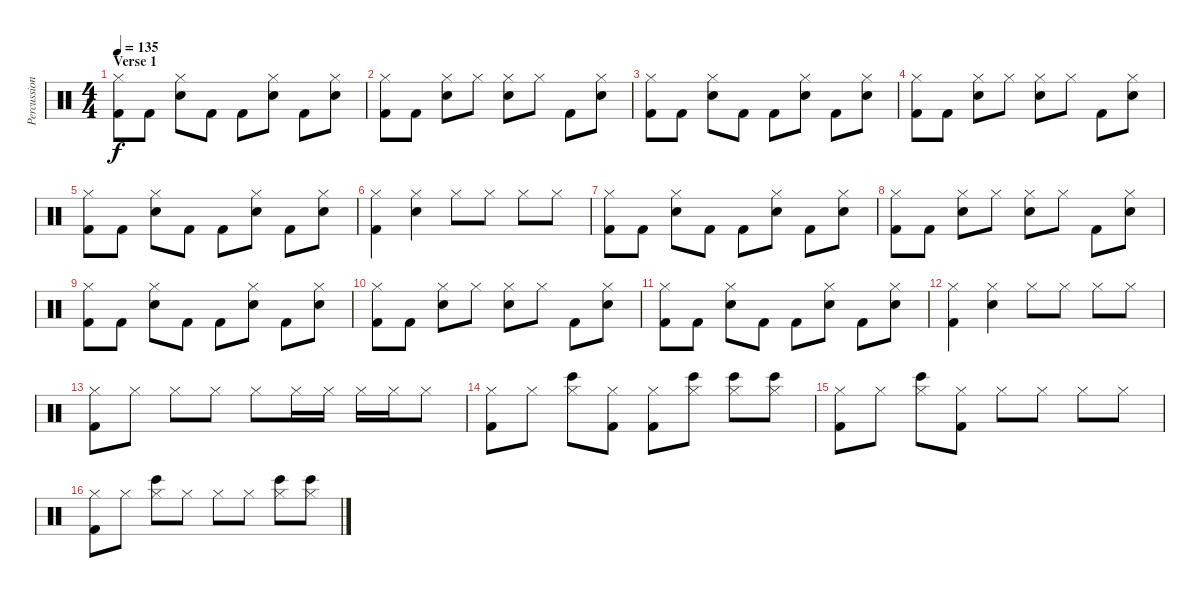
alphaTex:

\track ("Percussion" "Percussion") {instrument percussion}
\staff {score}
\articulation defaults
\ts (4 4)
\section ("" "Verse 1")
\tempo 135
\clef neutral
\ks c
("Hi-Hat (closed)" "Kick (hit) 2").8{dy f} "Kick (hit) 2".8 ("Hi-Hat (closed)" "Snare (hit) 2").8 "Kick (hit) 2".8 "Kick (hit) 2".8 ("Hi-Hat (closed)" "Snare (hit) 2").8 "Kick (hit) 2".8 ("Hi-Hat (closed)" "Snare (hit) 2").8 |
("Hi-Hat (closed)" "Kick (hit) 2").8 "Kick (hit) 2".8 ("Hi-Hat (closed)" "Snare (hit) 2").8 "Hi-Hat (closed)".8 ("Hi-Hat (closed)" "Snare (hit) 2").8 "Hi-Hat (closed)".8 "Kick (hit) 2".8 ("Hi-Hat (closed)" "Snare (hit) 2").8 |
("Hi-Hat (closed)" "Kick (hit) 2").8 "Kick (hit) 2".8 ("Hi-Hat (closed)" "Snare (hit) 2").8 "Kick (hit) 2".8 "Kick (hit) 2".8 ("Hi-Hat (closed)" "Snare (hit) 2").8 "Kick (hit) 2".8 ("Hi-Hat (closed)" "Snare (hit) 2").8 |
("Hi-Hat (closed)" "Kick (hit) 2").8 "Kick (hit) 2".8 ("Hi-Hat (closed)" "Snare (hit) 2").8 "Hi-Hat (closed)".8 ("Hi-Hat (closed)" "Snare (hit) 2").8 "Hi-Hat (closed)".8 "Kick (hit) 2".8 ("Hi-Hat (closed)" "Snare (hit) 2").8 |
("Hi-Hat (closed)" "Kick (hit) 2").8 "Kick (hit) 2".8 ("Hi-Hat (closed)" "Snare (hit) 2").8 "Kick (hit) 2".8 "Kick (hit) 2".8 ("Hi-Hat (closed)" "Snare (hit) 2").8 "Kick (hit) 2".8 ("Hi-Hat (closed)" "Snare (hit) 2").8 |
("Hi-Hat (closed)" "Kick (hit) 2").4 ("Hi-Hat (closed)" "Snare (hit) 2").4 "Hi-Hat (closed)".8 "Hi-Hat (closed)".8 "Hi-Hat (closed)".8 "Hi-Hat (closed)".8 |
("Hi-Hat (closed)" "Kick (hit) 2").8 "Kick (hit) 2".8 ("Hi-Hat (closed)" "Snare (hit) 2").8 "Kick (hit) 2".8 "Kick (hit) 2".8 ("Hi-Hat (closed)" "Snare (hit) 2").8 "Kick (hit) 2".8 ("Hi-Hat (closed)" "Snare (hit) 2").8 |
("Hi-Hat (closed)" "Kick (hit) 2").8 "Kick (hit) 2".8 ("Hi-Hat (closed)" "Snare (hit) 2").8 "Hi-Hat (closed)".8 ("Hi-Hat (closed)" "Snare (hit) 2").8 "Hi-Hat (closed)".8 "Kick (hit) 2".8 ("Hi-Hat (closed)" "Snare (hit) 2").8 |
("Hi-Hat (closed)" "Kick (hit) 2").8 "Kick (hit) 2".8 ("Hi-Hat (closed)" "Snare (hit) 2").8 "Kick (hit) 2".8 "Kick (hit) 2".8 ("Hi-Hat (closed)" "Snare (hit) 2").8 "Kick (hit) 2".8 ("Hi-Hat (closed)" "Snare (hit) 2").8 |
("Hi-Hat (closed)" "Kick (hit) 2").8 "Kick (hit) 2".8 ("Hi-Hat (closed)" "Snare (hit) 2").8 "Hi-Hat (closed)".8 ("Hi-Hat (closed)" "Snare (hit) 2").8 "Hi-Hat (closed)".8 "Kick (hit) 2".8 ("Hi-Hat (closed)" "Snare (hit) 2").8 |
("Hi-Hat (closed)" "Kick (hit) 2").8 "Kick (hit) 2".8 ("Hi-Hat (closed)" "Snare (hit) 2").8 "Kick (hit) 2".8 "Kick (hit) 2".8 ("Hi-Hat (closed)" "Snare (hit) 2").8 "Kick (hit) 2".8 ("Hi-Hat (closed)" "Snare (hit) 2").8 |
("Hi-Hat (closed)" "Kick (hit) 2").4 ("Hi-Hat (closed)" "Snare (hit) 2").4 "Hi-Hat (closed)".8 "Hi-Hat (closed)".8 "Hi-Hat (closed)".8 "Hi-Hat (closed)".8 |
("Hi-Hat (closed)" "Kick (hit) 2").8 "Hi-Hat (closed)".8 "Hi-Hat (closed)".8 "Hi-Hat (closed)".8 "Hi-Hat (closed)".8 "Hi-Hat (closed)".16 "Hi-Hat (closed)".16 "Hi-Hat (closed)".16 "Hi-Hat (closed)".16 "Hi-Hat (closed)".8 |
("Hi-Hat (closed)" "Kick (hit) 2").8 "Hi-Hat (closed)".8 ("Hi-Hat (closed)" "Bongo High (hit)").8 ("Hi-Hat (closed)" "Kick (hit) 2").8 ("Hi-Hat (closed)" "Kick (hit) 2").8 ("Hi-Hat (closed)" "Bongo High (hit)").8 ("Hi-Hat (closed)" "Bongo High (hit)").8 ("Hi-Hat (closed)" "Bongo High (hit)").8 |
("Hi-Hat (closed)" "Kick (hit) 2").8 "Hi-Hat (closed)".8 ("Hi-Hat (closed)" "Bongo High (hit)").8 ("Hi-Hat (closed)" "Kick (hit) 2").8 "Hi-Hat (closed)".8 "Hi-Hat (closed)".8 "Hi-Hat (closed)".8 "Hi-Hat (closed)".8 |
("Hi-Hat (closed)" "Kick (hit) 2").8 "Hi-Hat (closed)".8 ("Hi-Hat (closed)" "Bongo High (hit)").8 "Hi-Hat (closed)".8 "Hi-Hat (closed)".8 "Hi-Hat (closed)".8 ("Hi-Hat (closed)" "Bongo High (hit)").8 ("Hi-Hat (closed)" "Bongo High (hit)").8
